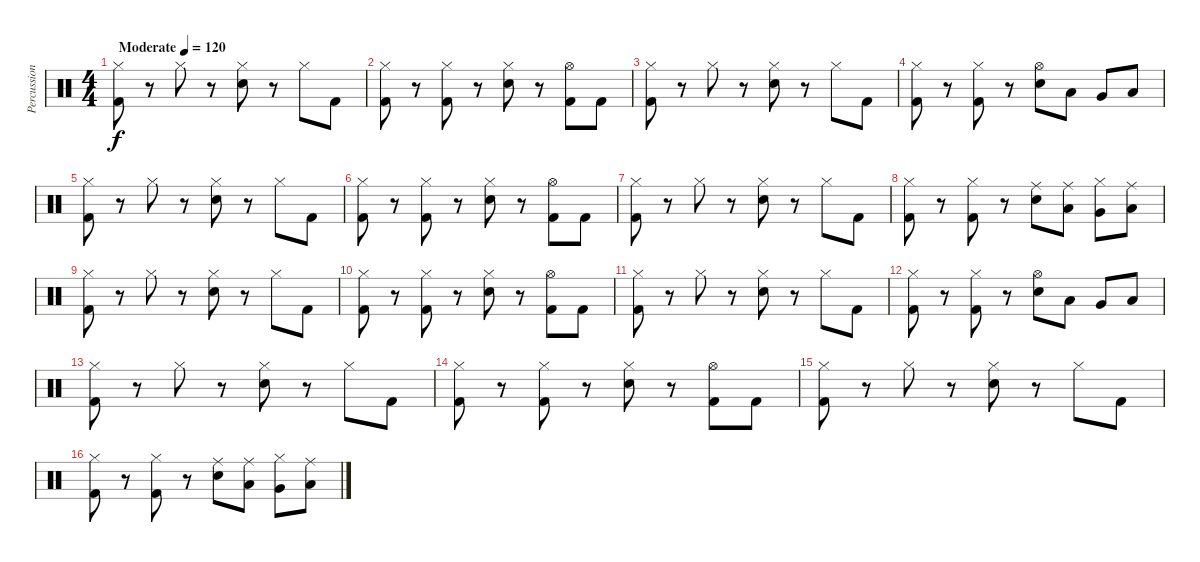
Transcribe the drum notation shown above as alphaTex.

\track ("Percussions" "Percussion") {instrument percussion}
\staff {score}
\articulation defaults
\ts (4 4)
\tempo (120 "Moderate")
\clef neutral
\ks c
("Hi-Hat (closed)" "Kick (hit) 2").8{dy f} r.8 "Hi-Hat (closed)".8 r.8 ("Hi-Hat (closed)" "Snare (hit) 2").8 r.8 "Hi-Hat (closed)".8 "Kick (hit) 2".8 |
("Hi-Hat (closed)" "Kick (hit) 2").8 r.8 ("Hi-Hat (closed)" "Kick (hit) 2").8 r.8 ("Hi-Hat (closed)" "Snare (hit) 2").8 r.8 ("Hi-Hat (open)" "Kick (hit) 2").8 "Kick (hit) 2".8 |
("Hi-Hat (closed)" "Kick (hit) 2").8 r.8 "Hi-Hat (closed)".8 r.8 ("Hi-Hat (closed)" "Snare (hit) 2").8 r.8 "Hi-Hat (closed)".8 "Kick (hit) 2".8 |
("Hi-Hat (closed)" "Kick (hit) 2").8 r.8 ("Hi-Hat (closed)" "Kick (hit) 2").8 r.8 ("Hi-Hat (open)" "Snare (hit) 2").8 "Low Tom (hit)".8 "Very Low Tom (hit)".8 "Low Floor Tom (hit)".8 |
("Hi-Hat (closed)" "Kick (hit) 2").8 r.8 "Hi-Hat (closed)".8 r.8 ("Hi-Hat (closed)" "Snare (hit) 2").8 r.8 "Hi-Hat (closed)".8 "Kick (hit) 2".8 |
("Hi-Hat (closed)" "Kick (hit) 2").8 r.8 ("Hi-Hat (closed)" "Kick (hit) 2").8 r.8 ("Hi-Hat (closed)" "Snare (hit) 2").8 r.8 ("Hi-Hat (open)" "Kick (hit) 2").8 "Kick (hit) 2".8 |
("Hi-Hat (closed)" "Kick (hit) 2").8 r.8 "Hi-Hat (closed)".8 r.8 ("Hi-Hat (closed)" "Snare (hit) 2").8 r.8 "Hi-Hat (closed)".8 "Kick (hit) 2".8 |
("Hi-Hat (closed)" "Kick (hit) 2").8 r.8 ("Hi-Hat (closed)" "Kick (hit) 2").8 r.8 ("Ride (middle)" "Snare (hit) 2").8 ("Ride (middle)" "Low Tom (hit)").8 ("Hi-Hat (closed)" "Very Low Tom (hit)").8 ("Ride (middle)" "Low Floor Tom (hit)").8 |
("Hi-Hat (closed)" "Kick (hit) 2").8 r.8 "Hi-Hat (closed)".8 r.8 ("Hi-Hat (closed)" "Snare (hit) 2").8 r.8 "Hi-Hat (closed)".8 "Kick (hit) 2".8 |
("Hi-Hat (closed)" "Kick (hit) 2").8 r.8 ("Hi-Hat (closed)" "Kick (hit) 2").8 r.8 ("Hi-Hat (closed)" "Snare (hit) 2").8 r.8 ("Hi-Hat (open)" "Kick (hit) 2").8 "Kick (hit) 2".8 |
("Hi-Hat (closed)" "Kick (hit) 2").8 r.8 "Hi-Hat (closed)".8 r.8 ("Hi-Hat (closed)" "Snare (hit) 2").8 r.8 "Hi-Hat (closed)".8 "Kick (hit) 2".8 |
("Hi-Hat (closed)" "Kick (hit) 2").8 r.8 ("Hi-Hat (closed)" "Kick (hit) 2").8 r.8 ("Hi-Hat (open)" "Snare (hit) 2").8 "Low Tom (hit)".8 "Very Low Tom (hit)".8 "Low Floor Tom (hit)".8 |
("Hi-Hat (closed)" "Kick (hit) 2").8 r.8 "Hi-Hat (closed)".8 r.8 ("Hi-Hat (closed)" "Snare (hit) 2").8 r.8 "Hi-Hat (closed)".8 "Kick (hit) 2".8 |
("Hi-Hat (closed)" "Kick (hit) 2").8 r.8 ("Hi-Hat (closed)" "Kick (hit) 2").8 r.8 ("Hi-Hat (closed)" "Snare (hit) 2").8 r.8 ("Hi-Hat (open)" "Kick (hit) 2").8 "Kick (hit) 2".8 |
("Hi-Hat (closed)" "Kick (hit) 2").8 r.8 "Hi-Hat (closed)".8 r.8 ("Hi-Hat (closed)" "Snare (hit) 2").8 r.8 "Hi-Hat (closed)".8 "Kick (hit) 2".8 |
("Hi-Hat (closed)" "Kick (hit) 2").8 r.8 ("Hi-Hat (closed)" "Kick (hit) 2").8 r.8 ("Ride (middle)" "Snare (hit) 2").8 ("Ride (middle)" "Low Tom (hit)").8 ("Hi-Hat (closed)" "Very Low Tom (hit)").8 ("Ride (middle)" "Low Floor Tom (hit)").8
